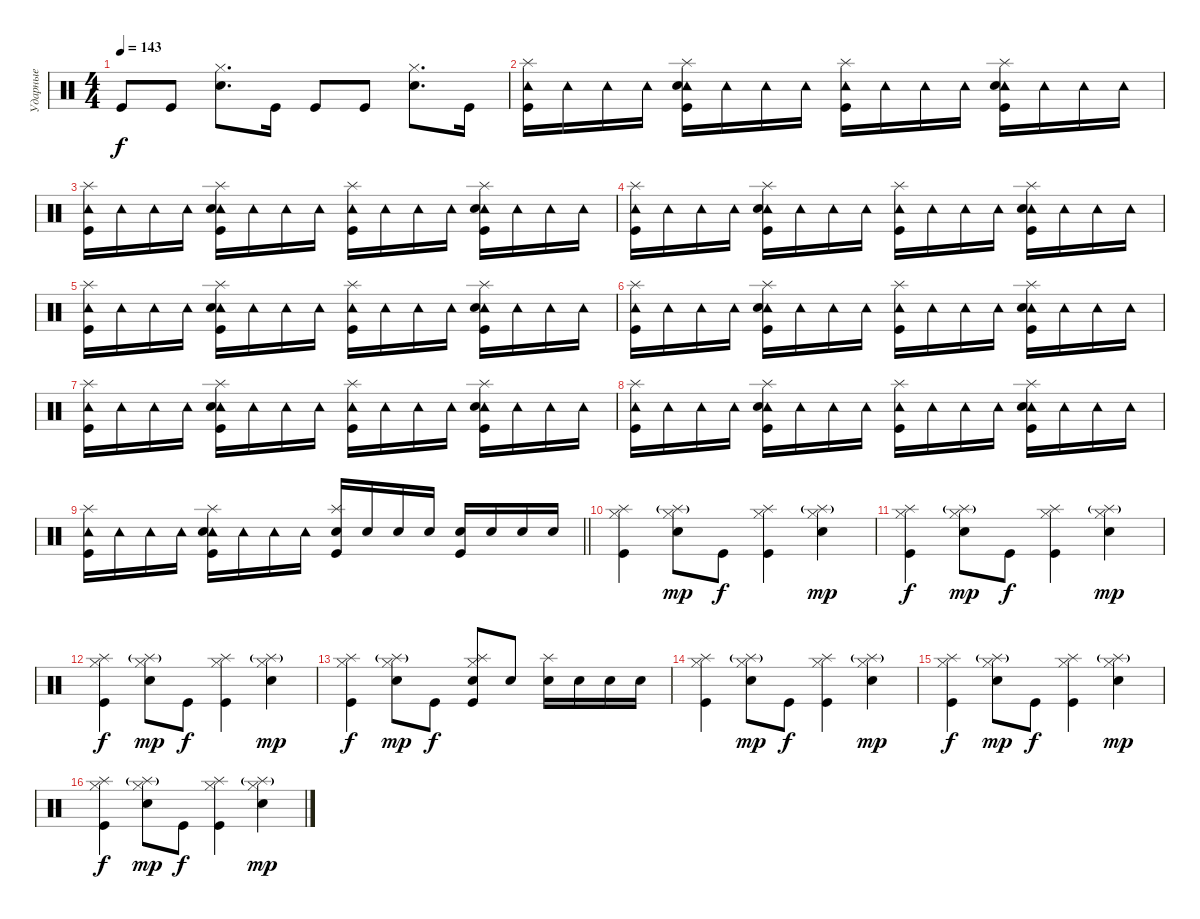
\track ("Ударные" "Ударные") {instrument percussion}
\staff {score}
\articulation defaults
\ts (4 4)
\tempo 143
\clef neutral
\ks c "Kick (hit)".8{dy f} "Kick (hit)".8
("Hi-Hat (closed)" "Electric Snare (hit)").8{d} "Kick (hit)".16 "Kick (hit)".8 "Kick (hit)".8 ("Hi-Hat (closed)" "Electric Snare (hit)").8{d} "Kick (hit)".16 |
("Tambourine (hit)" "Splash (hit)" "Kick (hit)").16 "Tambourine (hit)".16 "Tambourine (hit)".16 "Tambourine (hit)".16 ("Tambourine (hit)" "Splash (hit)" "Electric Snare (hit)" "Kick (hit)").16 "Tambourine (hit)".16 "Tambourine (hit)".16 "Tambourine (hit)".16 ("Tambourine (hit)" "Splash (hit)" "Kick (hit)").16 "Tambourine (hit)".16 "Tambourine (hit)".16 "Tambourine (hit)".16 ("Tambourine (hit)" "Splash (hit)" "Electric Snare (hit)" "Kick (hit)").16 "Tambourine (hit)".16 "Tambourine (hit)".16 "Tambourine (hit)".16 |
("Tambourine (hit)" "Splash (hit)" "Kick (hit)").16 "Tambourine (hit)".16 "Tambourine (hit)".16 "Tambourine (hit)".16 ("Tambourine (hit)" "Splash (hit)" "Electric Snare (hit)" "Kick (hit)").16 "Tambourine (hit)".16 "Tambourine (hit)".16 "Tambourine (hit)".16 ("Tambourine (hit)" "Splash (hit)" "Kick (hit)").16 "Tambourine (hit)".16 "Tambourine (hit)".16 "Tambourine (hit)".16 ("Tambourine (hit)" "Splash (hit)" "Electric Snare (hit)" "Kick (hit)").16 "Tambourine (hit)".16 "Tambourine (hit)".16 "Tambourine (hit)".16 |
("Tambourine (hit)" "Splash (hit)" "Kick (hit)").16 "Tambourine (hit)".16 "Tambourine (hit)".16 "Tambourine (hit)".16 ("Tambourine (hit)" "Splash (hit)" "Electric Snare (hit)" "Kick (hit)").16 "Tambourine (hit)".16 "Tambourine (hit)".16 "Tambourine (hit)".16 ("Tambourine (hit)" "Splash (hit)" "Kick (hit)").16 "Tambourine (hit)".16 "Tambourine (hit)".16 "Tambourine (hit)".16 ("Tambourine (hit)" "Splash (hit)" "Electric Snare (hit)" "Kick (hit)").16 "Tambourine (hit)".16 "Tambourine (hit)".16 "Tambourine (hit)".16 |
("Tambourine (hit)" "Splash (hit)" "Kick (hit)").16 "Tambourine (hit)".16 "Tambourine (hit)".16 "Tambourine (hit)".16 ("Tambourine (hit)" "Splash (hit)" "Electric Snare (hit)" "Kick (hit)").16 "Tambourine (hit)".16 "Tambourine (hit)".16 "Tambourine (hit)".16 ("Tambourine (hit)" "Splash (hit)" "Kick (hit)").16 "Tambourine (hit)".16 "Tambourine (hit)".16 "Tambourine (hit)".16 ("Tambourine (hit)" "Splash (hit)" "Electric Snare (hit)" "Kick (hit)").16 "Tambourine (hit)".16 "Tambourine (hit)".16 "Tambourine (hit)".16 |
("Tambourine (hit)" "Splash (hit)" "Kick (hit)").16 "Tambourine (hit)".16 "Tambourine (hit)".16 "Tambourine (hit)".16 ("Tambourine (hit)" "Splash (hit)" "Electric Snare (hit)" "Kick (hit)").16 "Tambourine (hit)".16 "Tambourine (hit)".16 "Tambourine (hit)".16 ("Tambourine (hit)" "Splash (hit)" "Kick (hit)").16 "Tambourine (hit)".16 "Tambourine (hit)".16 "Tambourine (hit)".16 ("Tambourine (hit)" "Splash (hit)" "Electric Snare (hit)" "Kick (hit)").16 "Tambourine (hit)".16 "Tambourine (hit)".16 "Tambourine (hit)".16 |
("Tambourine (hit)" "Splash (hit)" "Kick (hit)").16 "Tambourine (hit)".16 "Tambourine (hit)".16 "Tambourine (hit)".16 ("Tambourine (hit)" "Splash (hit)" "Electric Snare (hit)" "Kick (hit)").16 "Tambourine (hit)".16 "Tambourine (hit)".16 "Tambourine (hit)".16 ("Tambourine (hit)" "Splash (hit)" "Kick (hit)").16 "Tambourine (hit)".16 "Tambourine (hit)".16 "Tambourine (hit)".16 ("Tambourine (hit)" "Splash (hit)" "Electric Snare (hit)" "Kick (hit)").16 "Tambourine (hit)".16 "Tambourine (hit)".16 "Tambourine (hit)".16 |
("Tambourine (hit)" "Splash (hit)" "Kick (hit)").16 "Tambourine (hit)".16 "Tambourine (hit)".16 "Tambourine (hit)".16 ("Tambourine (hit)" "Splash (hit)" "Electric Snare (hit)" "Kick (hit)").16 "Tambourine (hit)".16 "Tambourine (hit)".16 "Tambourine (hit)".16 ("Tambourine (hit)" "Splash (hit)" "Kick (hit)").16 "Tambourine (hit)".16 "Tambourine (hit)".16 "Tambourine (hit)".16 ("Tambourine (hit)" "Splash (hit)" "Electric Snare (hit)" "Kick (hit)").16 "Tambourine (hit)".16 "Tambourine (hit)".16 "Tambourine (hit)".16 |
\barLineRight lightlight
("Tambourine (hit)" "Splash (hit)" "Kick (hit)").16 "Tambourine (hit)".16 "Tambourine (hit)".16 "Tambourine (hit)".16 ("Tambourine (hit)" "Splash (hit)" "Electric Snare (hit)" "Kick (hit)").16 "Tambourine (hit)".16 "Tambourine (hit)".16 "Tambourine (hit)".16 ("Splash (hit)" "Snare (hit) 2" "Kick (hit)").16 "Snare (hit) 2".16 "Snare (hit) 2".16 "Snare (hit) 2".16 ("Snare (hit) 2" "Kick (hit)").16 "Snare (hit) 2".16 "Snare (hit) 2".16 "Snare (hit) 2".16 |
("Splash (hit)" "Hi-Hat (closed)" "Kick (hit)").4 ("Splash (hit)"{g} "Hi-Hat (closed)" "Electric Snare (hit)").8{dy mp} "Kick (hit)".8{dy f} ("Splash (hit)" "Hi-Hat (closed)" "Kick (hit)").4 ("Splash (hit)"{g} "Hi-Hat (closed)" "Electric Snare (hit)").4{dy mp} |
("Splash (hit)" "Hi-Hat (closed)" "Kick (hit)").4{dy f} ("Splash (hit)"{g} "Hi-Hat (closed)" "Electric Snare (hit)").8{dy mp} "Kick (hit)".8{dy f} ("Splash (hit)" "Hi-Hat (closed)" "Kick (hit)").4 ("Splash (hit)"{g} "Hi-Hat (closed)" "Electric Snare (hit)").4{dy mp} |
("Splash (hit)" "Hi-Hat (closed)" "Kick (hit)").4{dy f} ("Splash (hit)"{g} "Hi-Hat (closed)" "Electric Snare (hit)").8{dy mp} "Kick (hit)".8{dy f} ("Splash (hit)" "Hi-Hat (closed)" "Kick (hit)").4 ("Splash (hit)"{g} "Hi-Hat (closed)" "Electric Snare (hit)").4{dy mp} |
("Splash (hit)" "Hi-Hat (closed)" "Kick (hit)").4{dy f} ("Splash (hit)"{g} "Hi-Hat (closed)" "Electric Snare (hit)").8{dy mp} "Kick (hit)".8{dy f} ("Splash (hit)" "Hi-Hat (closed)" "Snare (hit) 2" "Kick (hit)").8 "Snare (hit) 2".8 ("Splash (hit)" "Snare (hit) 2").16 "Snare (hit) 2".16 "Snare (hit) 2".16 "Snare (hit) 2".16 |
("Splash (hit)" "Hi-Hat (closed)" "Kick (hit)").4 ("Splash (hit)"{g} "Hi-Hat (closed)" "Electric Snare (hit)").8{dy mp} "Kick (hit)".8{dy f} ("Splash (hit)" "Hi-Hat (closed)" "Kick (hit)").4 ("Splash (hit)"{g} "Hi-Hat (closed)" "Electric Snare (hit)").4{dy mp} |
("Splash (hit)" "Hi-Hat (closed)" "Kick (hit)").4{dy f} ("Splash (hit)"{g} "Hi-Hat (closed)" "Electric Snare (hit)").8{dy mp} "Kick (hit)".8{dy f} ("Splash (hit)" "Hi-Hat (closed)" "Kick (hit)").4 ("Splash (hit)"{g} "Hi-Hat (closed)" "Electric Snare (hit)").4{dy mp} |
("Splash (hit)" "Hi-Hat (closed)" "Kick (hit)").4{dy f} ("Splash (hit)"{g} "Hi-Hat (closed)" "Electric Snare (hit)").8{dy mp} "Kick (hit)".8{dy f} ("Splash (hit)" "Hi-Hat (closed)" "Kick (hit)").4 ("Splash (hit)"{g} "Hi-Hat (closed)" "Electric Snare (hit)").4{dy mp}
